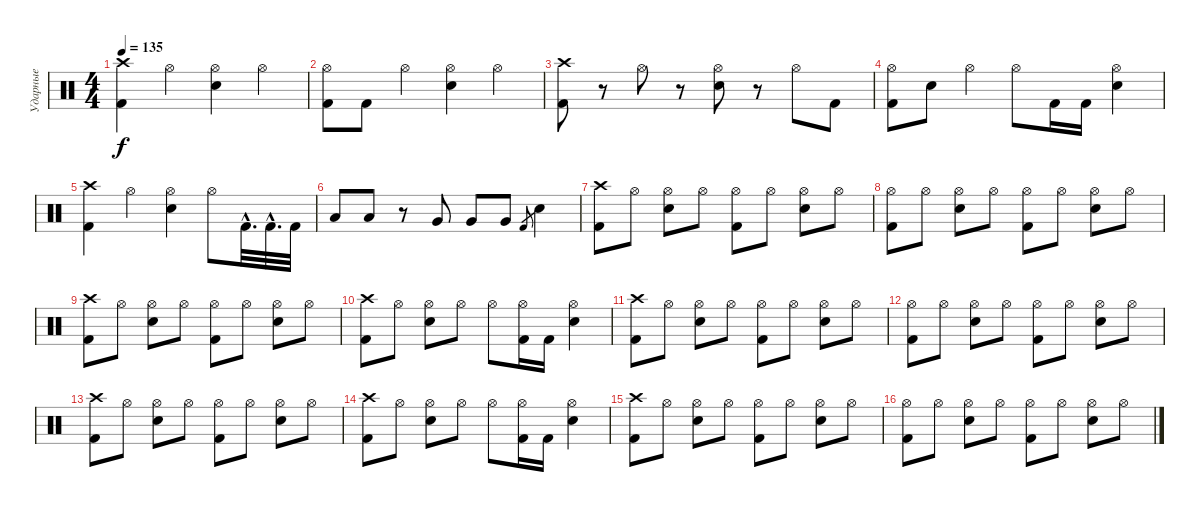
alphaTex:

\track ("Ударные" "Ударные") {instrument percussion}
\staff {score}
\articulation defaults
\ts (4 4)
\tempo 135
\clef neutral
\ks c
("Crash high (hit)" "Kick (hit) 2").4{dy f} "Hi-Hat (open)".4 ("Hi-Hat (open)" "Electric Snare (hit)").4 "Hi-Hat (open)".4 |
("Hi-Hat (open)" "Kick (hit) 2").8 "Kick (hit) 2".8 "Hi-Hat (open)".4 ("Hi-Hat (open)" "Electric Snare (hit)").4 "Hi-Hat (open)".4 |
("Crash high (hit)" "Kick (hit) 2").8 r.8 "Hi-Hat (open)".8 r.8 ("Hi-Hat (open)" "Electric Snare (hit)").8 r.8 "Hi-Hat (open)".8 "Kick (hit) 2".8 |
("Hi-Hat (open)" "Kick (hit) 2").8 "Electric Snare (hit)".8 "Hi-Hat (open)".4 "Hi-Hat (open)".8 "Kick (hit) 2".16 "Kick (hit) 2".16 ("Hi-Hat (open)" "Electric Snare (hit)").4 |
("Crash high (hit)" "Kick (hit) 2").4 "Hi-Hat (open)".4 ("Hi-Hat (open)" "Electric Snare (hit)").4 "Hi-Hat (open)".8 "Kick (hit) 2"{hac}.32{d} "Kick (hit) 2"{hac}.32{d} "Kick (hit) 2".32 |
"Low Tom (hit)".8 "Low Tom (hit)".8 r.8 "Very Low Tom (hit)".8 "Very Low Tom (hit)".8 "Very Low Tom (hit)".8 "Kick (hit) 2".8{gr} "Electric Snare (hit)".4 |
("Crash high (hit)" "Kick (hit) 2").8 "Hi-Hat (open)".8 ("Hi-Hat (open)" "Electric Snare (hit)").8 "Hi-Hat (open)".8 ("Hi-Hat (open)" "Kick (hit) 2").8 "Hi-Hat (open)".8 ("Hi-Hat (open)" "Electric Snare (hit)").8 "Hi-Hat (open)".8 |
("Hi-Hat (open)" "Kick (hit) 2").8 "Hi-Hat (open)".8 ("Hi-Hat (open)" "Electric Snare (hit)").8 "Hi-Hat (open)".8 ("Hi-Hat (open)" "Kick (hit) 2").8 "Hi-Hat (open)".8 ("Hi-Hat (open)" "Electric Snare (hit)").8 "Hi-Hat (open)".8 |
("Crash high (hit)" "Kick (hit) 2").8 "Hi-Hat (open)".8 ("Hi-Hat (open)" "Electric Snare (hit)").8 "Hi-Hat (open)".8 ("Hi-Hat (open)" "Kick (hit) 2").8 "Hi-Hat (open)".8 ("Hi-Hat (open)" "Electric Snare (hit)").8 "Hi-Hat (open)".8 |
("Crash high (hit)" "Kick (hit) 2").8 "Hi-Hat (open)".8 ("Hi-Hat (open)" "Electric Snare (hit)").8 "Hi-Hat (open)".8 "Hi-Hat (open)".8 ("Hi-Hat (open)" "Kick (hit) 2").16 "Kick (hit) 2".16 ("Hi-Hat (open)" "Electric Snare (hit)").4 |
("Crash high (hit)" "Kick (hit) 2").8 "Hi-Hat (open)".8 ("Hi-Hat (open)" "Electric Snare (hit)").8 "Hi-Hat (open)".8 ("Hi-Hat (open)" "Kick (hit) 2").8 "Hi-Hat (open)".8 ("Hi-Hat (open)" "Electric Snare (hit)").8 "Hi-Hat (open)".8 |
("Hi-Hat (open)" "Kick (hit) 2").8 "Hi-Hat (open)".8 ("Hi-Hat (open)" "Electric Snare (hit)").8 "Hi-Hat (open)".8 ("Hi-Hat (open)" "Kick (hit) 2").8 "Hi-Hat (open)".8 ("Hi-Hat (open)" "Electric Snare (hit)").8 "Hi-Hat (open)".8 |
("Crash high (hit)" "Kick (hit) 2").8 "Hi-Hat (open)".8 ("Hi-Hat (open)" "Electric Snare (hit)").8 "Hi-Hat (open)".8 ("Hi-Hat (open)" "Kick (hit) 2").8 "Hi-Hat (open)".8 ("Hi-Hat (open)" "Electric Snare (hit)").8 "Hi-Hat (open)".8 |
("Crash high (hit)" "Kick (hit) 2").8 "Hi-Hat (open)".8 ("Hi-Hat (open)" "Electric Snare (hit)").8 "Hi-Hat (open)".8 "Hi-Hat (open)".8 ("Hi-Hat (open)" "Kick (hit) 2").16 "Kick (hit) 2".16 ("Hi-Hat (open)" "Electric Snare (hit)").4 |
("Crash high (hit)" "Kick (hit) 2").8 "Hi-Hat (open)".8 ("Hi-Hat (open)" "Electric Snare (hit)").8 "Hi-Hat (open)".8 ("Hi-Hat (open)" "Kick (hit) 2").8 "Hi-Hat (open)".8 ("Hi-Hat (open)" "Electric Snare (hit)").8 "Hi-Hat (open)".8 |
("Hi-Hat (open)" "Kick (hit) 2").8 "Hi-Hat (open)".8 ("Hi-Hat (open)" "Electric Snare (hit)").8 "Hi-Hat (open)".8 ("Hi-Hat (open)" "Kick (hit) 2").8 "Hi-Hat (open)".8 ("Hi-Hat (open)" "Electric Snare (hit)").8 "Hi-Hat (open)".8
